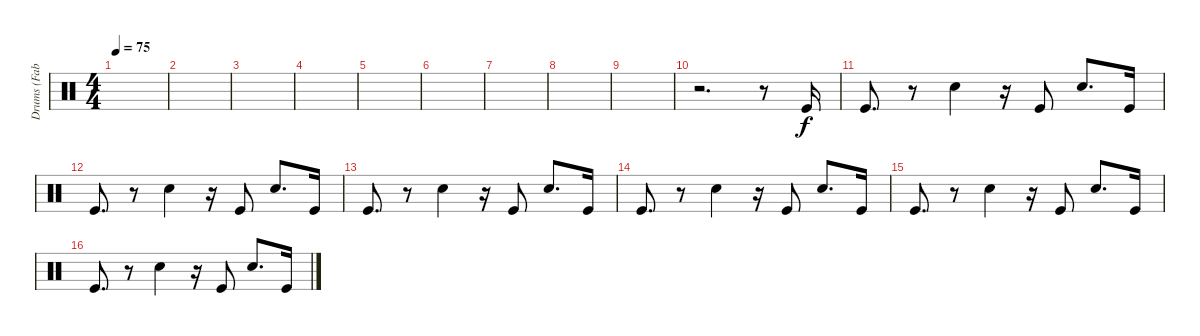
\track ("Drums (Fabien)" "Drums (Fab") {instrument percussion}
\staff {score}
\articulation defaults
\ts (4 4)
\tempo 75
\clef neutral
\ks c
|
|
|
|
|
|
|
|
|
r.2{d} r.8 "Kick (hit)".16 |
"Kick (hit)".8{d} r.8 "Electric Snare (hit)".4 r.16 "Kick (hit)".8 "Electric Snare (hit)".8{d} "Kick (hit)".16 |
"Kick (hit)".8{d} r.8 "Electric Snare (hit)".4 r.16 "Kick (hit)".8 "Electric Snare (hit)".8{d} "Kick (hit)".16 |
"Kick (hit)".8{d} r.8 "Electric Snare (hit)".4 r.16 "Kick (hit)".8 "Electric Snare (hit)".8{d} "Kick (hit)".16 |
"Kick (hit)".8{d} r.8 "Electric Snare (hit)".4 r.16 "Kick (hit)".8 "Electric Snare (hit)".8{d} "Kick (hit)".16 |
"Kick (hit)".8{d} r.8 "Electric Snare (hit)".4 r.16 "Kick (hit)".8 "Electric Snare (hit)".8{d} "Kick (hit)".16 |
"Kick (hit)".8{d} r.8 "Electric Snare (hit)".4 r.16 "Kick (hit)".8 "Electric Snare (hit)".8{d} "Kick (hit)".16
